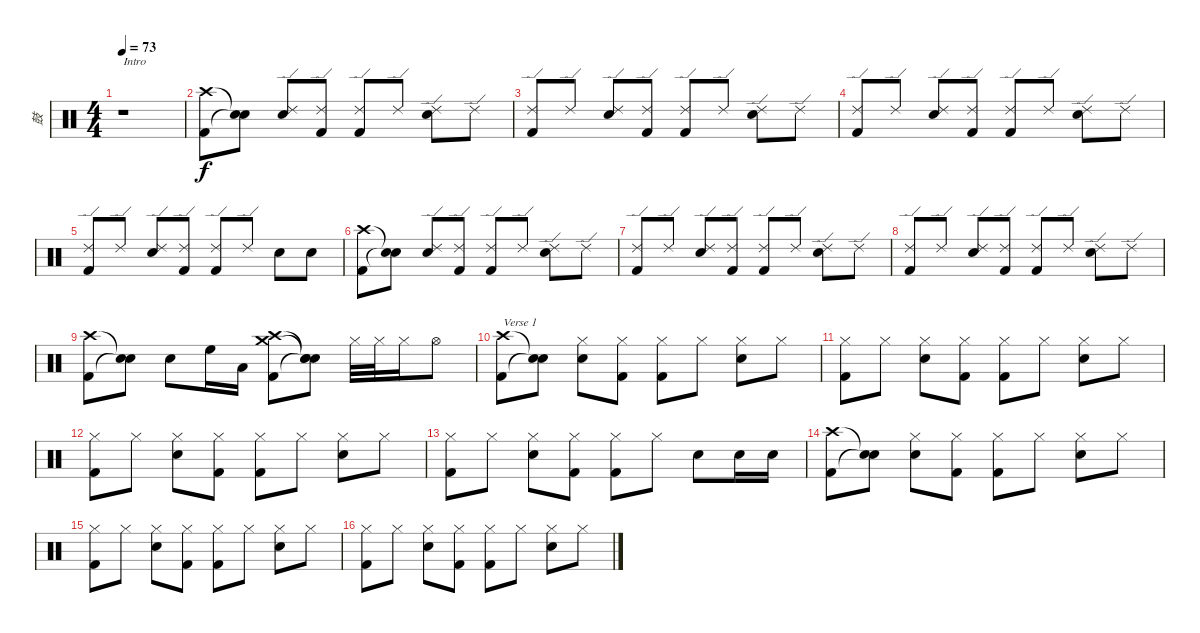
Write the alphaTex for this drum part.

\track ("鼓" "鼓") {instrument percussion}
\staff {score}
\articulation defaults
\ts (4 4)
\tempo 73
\clef neutral
\ks c
r.1{txt "Intro" dy f} |
("Crash high (hit)" "Kick (hit) 2").8 ("Snare (hit)"{t} "Snare (hit)"{t}).8 ("Ride (edge) 2" "Electric Snare (hit)").8 ("Ride (edge) 2" "Kick (hit) 2").8 ("Ride (edge) 2" "Kick (hit) 2").8 "Ride (edge) 2".8 ("Ride (edge) 2" "Electric Snare (hit)").8 "Ride (edge) 2".8 |
("Ride (edge) 2" "Kick (hit) 2").8 "Ride (edge) 2".8 ("Ride (edge) 2" "Electric Snare (hit)").8 ("Ride (edge) 2" "Kick (hit) 2").8 ("Ride (edge) 2" "Kick (hit) 2").8 "Ride (edge) 2".8 ("Ride (edge) 2" "Electric Snare (hit)").8 "Ride (edge) 2".8 |
("Ride (edge) 2" "Kick (hit) 2").8 "Ride (edge) 2".8 ("Ride (edge) 2" "Electric Snare (hit)").8 ("Ride (edge) 2" "Kick (hit) 2").8 ("Ride (edge) 2" "Kick (hit) 2").8 "Ride (edge) 2".8 ("Ride (edge) 2" "Electric Snare (hit)").8 "Ride (edge) 2".8 |
("Ride (edge) 2" "Kick (hit) 2").8 "Ride (edge) 2".8 ("Ride (edge) 2" "Electric Snare (hit)").8 ("Ride (edge) 2" "Kick (hit) 2").8 ("Ride (edge) 2" "Kick (hit) 2").8 "Ride (edge) 2".8 "Electric Snare (hit)".8 "Electric Snare (hit)".8 |
("Crash high (hit)" "Kick (hit) 2").8 ("Snare (hit)"{t} "Snare (hit)"{t}).8 ("Ride (edge) 2" "Electric Snare (hit)").8 ("Ride (edge) 2" "Kick (hit) 2").8 ("Ride (edge) 2" "Kick (hit) 2").8 "Ride (edge) 2".8 ("Ride (edge) 2" "Electric Snare (hit)").8 "Ride (edge) 2".8 |
("Ride (edge) 2" "Kick (hit) 2").8 "Ride (edge) 2".8 ("Ride (edge) 2" "Electric Snare (hit)").8 ("Ride (edge) 2" "Kick (hit) 2").8 ("Ride (edge) 2" "Kick (hit) 2").8 "Ride (edge) 2".8 ("Ride (edge) 2" "Electric Snare (hit)").8 "Ride (edge) 2".8 |
("Ride (edge) 2" "Kick (hit) 2").8 "Ride (edge) 2".8 ("Ride (edge) 2" "Electric Snare (hit)").8 ("Ride (edge) 2" "Kick (hit) 2").8 ("Ride (edge) 2" "Kick (hit) 2").8 "Ride (edge) 2".8 ("Ride (edge) 2" "Electric Snare (hit)").8 "Ride (edge) 2".8 |
("Crash high (hit)" "Kick (hit) 2").8 ("Snare (hit)"{t} "Snare (hit)"{t}).8 "Electric Snare (hit)".8 "High Floor Tom (hit)".16 "Low Tom (hit)".16 ("Crash high (hit)" "Crash medium (hit)" "Kick (hit) 2").8 ("Snare (hit)"{t} "Snare (hit)"{t} "Snare (hit)"{t}).8 "Hi-Hat (closed)".32 "Hi-Hat (closed)".32 "Hi-Hat (closed)".16 "Hi-Hat (open)".8 |
("Crash high (hit)" "Kick (hit) 2").8{txt "Verse 1"} ("Snare (hit)"{t} "Snare (hit)"{t}).8 ("Hi-Hat (closed)" "Electric Snare (hit)").8 ("Hi-Hat (closed)" "Kick (hit) 2").8 ("Hi-Hat (closed)" "Kick (hit) 2").8 "Hi-Hat (closed)".8 ("Hi-Hat (closed)" "Electric Snare (hit)").8 "Hi-Hat (closed)".8 |
("Hi-Hat (closed)" "Kick (hit) 2").8 "Hi-Hat (closed)".8 ("Hi-Hat (closed)" "Electric Snare (hit)").8 ("Hi-Hat (closed)" "Kick (hit) 2").8 ("Hi-Hat (closed)" "Kick (hit) 2").8 "Hi-Hat (closed)".8 ("Hi-Hat (closed)" "Electric Snare (hit)").8 "Hi-Hat (closed)".8 |
("Hi-Hat (closed)" "Kick (hit) 2").8 "Hi-Hat (closed)".8 ("Hi-Hat (closed)" "Electric Snare (hit)").8 ("Hi-Hat (closed)" "Kick (hit) 2").8 ("Hi-Hat (closed)" "Kick (hit) 2").8 "Hi-Hat (closed)".8 ("Hi-Hat (closed)" "Electric Snare (hit)").8 "Hi-Hat (closed)".8 |
("Hi-Hat (closed)" "Kick (hit) 2").8 "Hi-Hat (closed)".8 ("Hi-Hat (closed)" "Electric Snare (hit)").8 ("Hi-Hat (closed)" "Kick (hit) 2").8 ("Hi-Hat (closed)" "Kick (hit) 2").8 "Hi-Hat (closed)".8 "Electric Snare (hit)".8 "Electric Snare (hit)".16 "Electric Snare (hit)".16 |
("Crash high (hit)" "Kick (hit) 2").8 ("Snare (hit)"{t} "Snare (hit)"{t}).8 ("Hi-Hat (closed)" "Electric Snare (hit)").8 ("Hi-Hat (closed)" "Kick (hit) 2").8 ("Hi-Hat (closed)" "Kick (hit) 2").8 "Hi-Hat (closed)".8 ("Hi-Hat (closed)" "Electric Snare (hit)").8 "Hi-Hat (closed)".8 |
("Hi-Hat (closed)" "Kick (hit) 2").8 "Hi-Hat (closed)".8 ("Hi-Hat (closed)" "Electric Snare (hit)").8 ("Hi-Hat (closed)" "Kick (hit) 2").8 ("Hi-Hat (closed)" "Kick (hit) 2").8 "Hi-Hat (closed)".8 ("Hi-Hat (closed)" "Electric Snare (hit)").8 "Hi-Hat (closed)".8 |
("Hi-Hat (closed)" "Kick (hit) 2").8 "Hi-Hat (closed)".8 ("Hi-Hat (closed)" "Electric Snare (hit)").8 ("Hi-Hat (closed)" "Kick (hit) 2").8 ("Hi-Hat (closed)" "Kick (hit) 2").8 "Hi-Hat (closed)".8 ("Hi-Hat (closed)" "Electric Snare (hit)").8 "Hi-Hat (closed)".8
